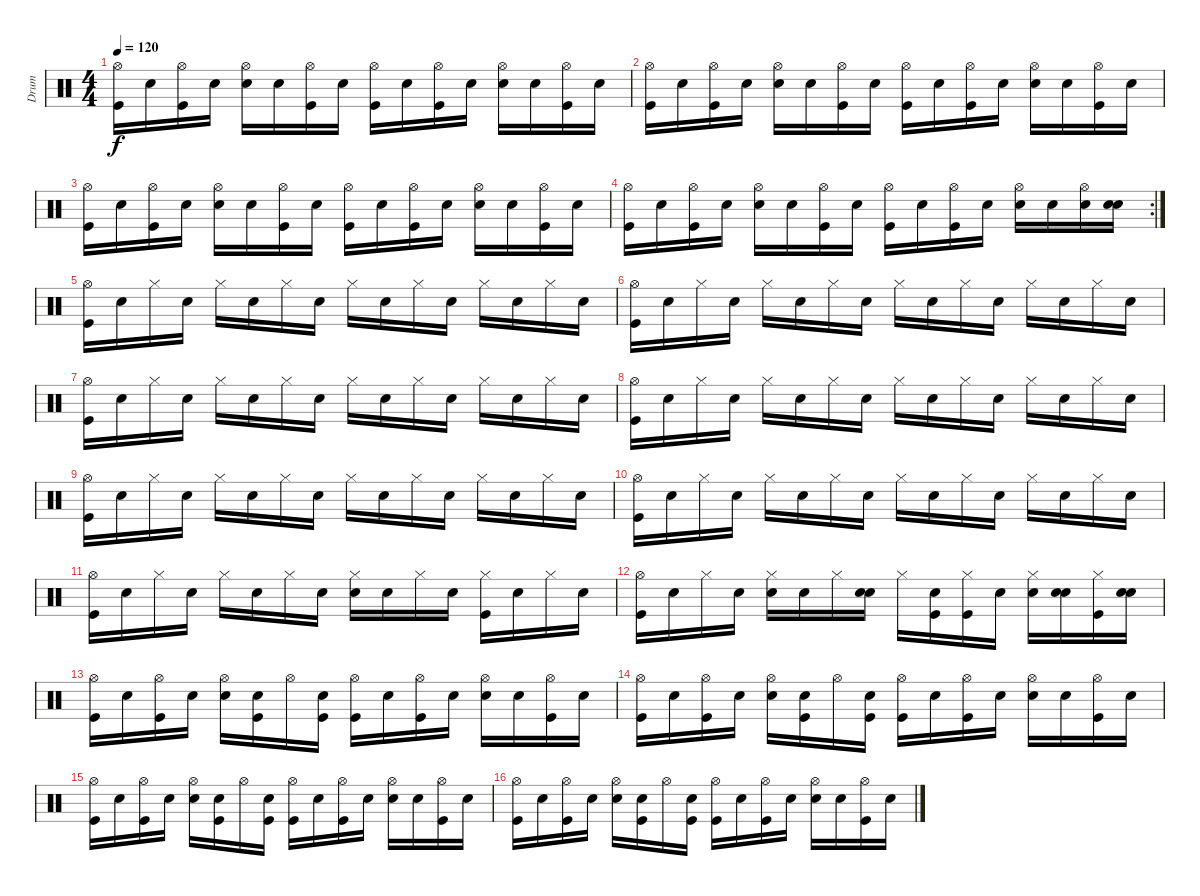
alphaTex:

\track ("Drum" "Drum") {instrument percussion}
\staff {score}
\articulation defaults
\ts (4 4)
\tempo 120
\clef neutral
\ks c
("Hi-Hat (open)" "Kick (hit)").16{dy f} "Snare (hit)".16 ("Hi-Hat (open)" "Kick (hit)").16 "Snare (hit)".16 ("Hi-Hat (open)" "Electric Snare (hit)").16 "Snare (hit)".16 ("Hi-Hat (open)" "Kick (hit)").16 "Snare (hit)".16 ("Hi-Hat (open)" "Kick (hit)").16 "Snare (hit)".16 ("Hi-Hat (open)" "Kick (hit)").16 "Snare (hit)".16 ("Hi-Hat (open)" "Electric Snare (hit)").16 "Snare (hit)".16 ("Hi-Hat (open)" "Kick (hit)").16 "Snare (hit)".16 |
("Hi-Hat (open)" "Kick (hit)").16 "Snare (hit)".16 ("Hi-Hat (open)" "Kick (hit)").16 "Snare (hit)".16 ("Hi-Hat (open)" "Electric Snare (hit)").16 "Snare (hit)".16 ("Hi-Hat (open)" "Kick (hit)").16 "Snare (hit)".16 ("Hi-Hat (open)" "Kick (hit)").16 "Snare (hit)".16 ("Hi-Hat (open)" "Kick (hit)").16 "Snare (hit)".16 ("Hi-Hat (open)" "Electric Snare (hit)").16 "Snare (hit)".16 ("Hi-Hat (open)" "Kick (hit)").16 "Snare (hit)".16 |
("Hi-Hat (open)" "Kick (hit)").16 "Snare (hit)".16 ("Hi-Hat (open)" "Kick (hit)").16 "Snare (hit)".16 ("Hi-Hat (open)" "Electric Snare (hit)").16 "Snare (hit)".16 ("Hi-Hat (open)" "Kick (hit)").16 "Snare (hit)".16 ("Hi-Hat (open)" "Kick (hit)").16 "Snare (hit)".16 ("Hi-Hat (open)" "Kick (hit)").16 "Snare (hit)".16 ("Hi-Hat (open)" "Electric Snare (hit)").16 "Snare (hit)".16 ("Hi-Hat (open)" "Kick (hit)").16 "Snare (hit)".16 |
\rc 2
("Hi-Hat (open)" "Kick (hit)").16 "Snare (hit)".16 ("Hi-Hat (open)" "Kick (hit)").16 "Snare (hit)".16 ("Hi-Hat (open)" "Electric Snare (hit)").16 "Snare (hit)".16 ("Hi-Hat (open)" "Kick (hit)").16 "Snare (hit)".16 ("Hi-Hat (open)" "Kick (hit)").16 "Snare (hit)".16 ("Hi-Hat (open)" "Kick (hit)").16 "Snare (hit)".16 ("Hi-Hat (open)" "Electric Snare (hit)").16 "Snare (hit)".16 ("Hi-Hat (open)" "Electric Snare (hit)").16 ("Snare (hit)" "Electric Snare (hit)").16 |
("Hi-Hat (open)" "Kick (hit)").16 "Snare (hit)".16 "Hi-Hat (closed)".16 "Snare (hit)".16 "Hi-Hat (closed)".16 "Snare (hit)".16 "Hi-Hat (closed)".16 "Snare (hit)".16 "Hi-Hat (closed)".16 "Snare (hit)".16 "Hi-Hat (closed)".16 "Snare (hit)".16 "Hi-Hat (closed)".16 "Snare (hit)".16 "Hi-Hat (closed)".16 "Snare (hit)".16 |
("Hi-Hat (open)" "Kick (hit)").16 "Snare (hit)".16 "Hi-Hat (closed)".16 "Snare (hit)".16 "Hi-Hat (closed)".16 "Snare (hit)".16 "Hi-Hat (closed)".16 "Snare (hit)".16 "Hi-Hat (closed)".16 "Snare (hit)".16 "Hi-Hat (closed)".16 "Snare (hit)".16 "Hi-Hat (closed)".16 "Snare (hit)".16 "Hi-Hat (closed)".16 "Snare (hit)".16 |
("Hi-Hat (open)" "Kick (hit)").16 "Snare (hit)".16 "Hi-Hat (closed)".16 "Snare (hit)".16 "Hi-Hat (closed)".16 "Snare (hit)".16 "Hi-Hat (closed)".16 "Snare (hit)".16 "Hi-Hat (closed)".16 "Snare (hit)".16 "Hi-Hat (closed)".16 "Snare (hit)".16 "Hi-Hat (closed)".16 "Snare (hit)".16 "Hi-Hat (closed)".16 "Snare (hit)".16 |
("Hi-Hat (open)" "Kick (hit)").16 "Snare (hit)".16 "Hi-Hat (closed)".16 "Snare (hit)".16 "Hi-Hat (closed)".16 "Snare (hit)".16 "Hi-Hat (closed)".16 "Snare (hit)".16 "Hi-Hat (closed)".16 "Snare (hit)".16 "Hi-Hat (closed)".16 "Snare (hit)".16 "Hi-Hat (closed)".16 "Snare (hit)".16 "Hi-Hat (closed)".16 "Snare (hit)".16 |
("Hi-Hat (open)" "Kick (hit)").16 "Snare (hit)".16 "Hi-Hat (closed)".16 "Snare (hit)".16 "Hi-Hat (closed)".16 "Snare (hit)".16 "Hi-Hat (closed)".16 "Snare (hit)".16 "Hi-Hat (closed)".16 "Snare (hit)".16 "Hi-Hat (closed)".16 "Snare (hit)".16 "Hi-Hat (closed)".16 "Snare (hit)".16 "Hi-Hat (closed)".16 "Snare (hit)".16 |
("Hi-Hat (open)" "Kick (hit)").16 "Snare (hit)".16 "Hi-Hat (closed)".16 "Snare (hit)".16 "Hi-Hat (closed)".16 "Snare (hit)".16 "Hi-Hat (closed)".16 "Snare (hit)".16 "Hi-Hat (closed)".16 "Snare (hit)".16 "Hi-Hat (closed)".16 "Snare (hit)".16 "Hi-Hat (closed)".16 "Snare (hit)".16 "Hi-Hat (closed)".16 "Snare (hit)".16 |
("Hi-Hat (open)" "Kick (hit)").16 "Snare (hit)".16 "Hi-Hat (closed)".16 "Snare (hit)".16 "Hi-Hat (closed)".16 "Snare (hit)".16 "Hi-Hat (closed)".16 "Snare (hit)".16 ("Hi-Hat (closed)" "Electric Snare (hit)").16 "Snare (hit)".16 "Hi-Hat (closed)".16 "Snare (hit)".16 ("Hi-Hat (closed)" "Kick (hit)").16 "Snare (hit)".16 "Hi-Hat (closed)".16 "Snare (hit)".16 |
("Hi-Hat (open)" "Kick (hit)").16 "Snare (hit)".16 "Hi-Hat (closed)".16 "Snare (hit)".16 ("Hi-Hat (closed)" "Electric Snare (hit)").16 "Snare (hit)".16 "Hi-Hat (closed)".16 ("Snare (hit)" "Electric Snare (hit)").16 "Hi-Hat (closed)".16 ("Snare (hit)" "Kick (hit)").16 ("Hi-Hat (closed)" "Kick (hit)").16 "Snare (hit)".16 ("Hi-Hat (closed)" "Electric Snare (hit)").16 ("Snare (hit)" "Electric Snare (hit)").16 ("Hi-Hat (closed)" "Kick (hit)").16 ("Snare (hit)" "Electric Snare (hit)").16 |
("Hi-Hat (open)" "Kick (hit)").16 "Snare (hit)".16 ("Hi-Hat (open)" "Kick (hit)").16 "Snare (hit)".16 ("Hi-Hat (open)" "Electric Snare (hit)").16 ("Snare (hit)" "Kick (hit)").16 "Hi-Hat (open)".16 ("Snare (hit)" "Kick (hit)").16 ("Hi-Hat (open)" "Kick (hit)").16 "Snare (hit)".16 ("Hi-Hat (open)" "Kick (hit)").16 "Snare (hit)".16 ("Hi-Hat (open)" "Electric Snare (hit)").16 "Snare (hit)".16 ("Hi-Hat (open)" "Kick (hit)").16 "Snare (hit)".16 |
("Hi-Hat (open)" "Kick (hit)").16 "Snare (hit)".16 ("Hi-Hat (open)" "Kick (hit)").16 "Snare (hit)".16 ("Hi-Hat (open)" "Electric Snare (hit)").16 ("Snare (hit)" "Kick (hit)").16 "Hi-Hat (open)".16 ("Snare (hit)" "Kick (hit)").16 ("Hi-Hat (open)" "Kick (hit)").16 "Snare (hit)".16 ("Hi-Hat (open)" "Kick (hit)").16 "Snare (hit)".16 ("Hi-Hat (open)" "Electric Snare (hit)").16 "Snare (hit)".16 ("Hi-Hat (open)" "Kick (hit)").16 "Snare (hit)".16 |
("Hi-Hat (open)" "Kick (hit)").16 "Snare (hit)".16 ("Hi-Hat (open)" "Kick (hit)").16 "Snare (hit)".16 ("Hi-Hat (open)" "Electric Snare (hit)").16 ("Snare (hit)" "Kick (hit)").16 "Hi-Hat (open)".16 ("Snare (hit)" "Kick (hit)").16 ("Hi-Hat (open)" "Kick (hit)").16 "Snare (hit)".16 ("Hi-Hat (open)" "Kick (hit)").16 "Snare (hit)".16 ("Hi-Hat (open)" "Electric Snare (hit)").16 "Snare (hit)".16 ("Hi-Hat (open)" "Kick (hit)").16 "Snare (hit)".16 |
("Hi-Hat (open)" "Kick (hit)").16 "Snare (hit)".16 ("Hi-Hat (open)" "Kick (hit)").16 "Snare (hit)".16 ("Hi-Hat (open)" "Electric Snare (hit)").16 ("Snare (hit)" "Kick (hit)").16 "Hi-Hat (open)".16 ("Snare (hit)" "Kick (hit)").16 ("Hi-Hat (open)" "Kick (hit)").16 "Snare (hit)".16 ("Hi-Hat (open)" "Kick (hit)").16 "Snare (hit)".16 ("Hi-Hat (open)" "Electric Snare (hit)").16 "Snare (hit)".16 ("Hi-Hat (open)" "Kick (hit)").16 "Snare (hit)".16
